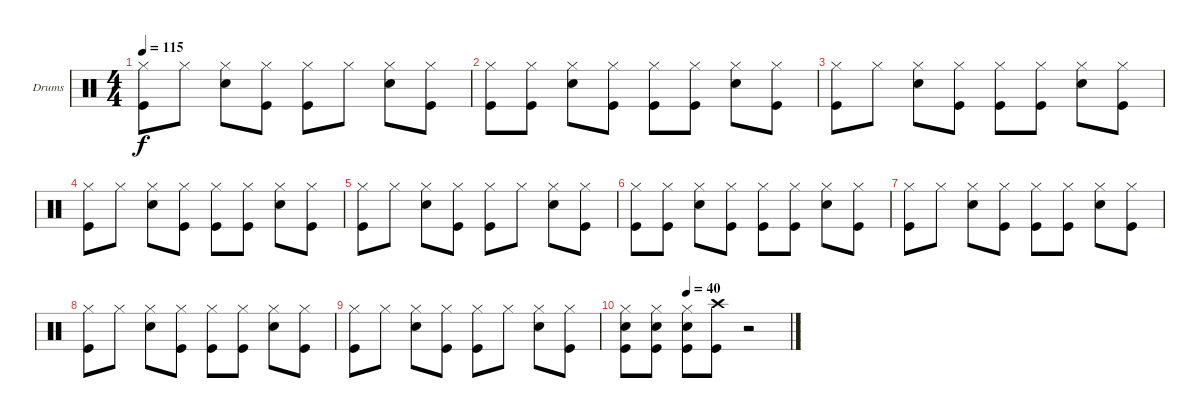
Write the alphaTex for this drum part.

\bracketExtendMode groupsimilarinstruments
\firstSystemTrackNameOrientation horizontal
\otherSystemsTrackNameOrientation horizontal
\track ("Drumkit" "Drums") {instrument percussion}
\staff {score}
\articulation defaults
\ts (4 4)
\tempo 115
\clef neutral
\ks c
("Hi-Hat (closed)" "Kick (hit)").8{dy f} "Hi-Hat (closed)".8 ("Hi-Hat (closed)" "Snare (hit) 2").8 ("Hi-Hat (closed)" "Kick (hit)").8 ("Hi-Hat (closed)" "Kick (hit)").8 "Hi-Hat (closed)".8 ("Hi-Hat (closed)" "Snare (hit) 2").8 ("Hi-Hat (closed)" "Kick (hit)").8 |
("Hi-Hat (closed)" "Kick (hit)").8 ("Hi-Hat (closed)" "Kick (hit)").8 ("Hi-Hat (closed)" "Snare (hit) 2").8 ("Hi-Hat (closed)" "Kick (hit)").8 ("Hi-Hat (closed)" "Kick (hit)").8 ("Hi-Hat (closed)" "Kick (hit)").8 ("Hi-Hat (closed)" "Snare (hit) 2").8 ("Hi-Hat (closed)" "Kick (hit)").8 |
("Hi-Hat (closed)" "Kick (hit)").8 "Hi-Hat (closed)".8 ("Hi-Hat (closed)" "Snare (hit) 2").8 ("Hi-Hat (closed)" "Kick (hit)").8 ("Hi-Hat (closed)" "Kick (hit)").8 ("Hi-Hat (closed)" "Kick (hit)").8 ("Hi-Hat (closed)" "Snare (hit) 2").8 ("Hi-Hat (closed)" "Kick (hit)").8 |
("Hi-Hat (closed)" "Kick (hit)").8 "Hi-Hat (closed)".8 ("Hi-Hat (closed)" "Snare (hit) 2").8 ("Hi-Hat (closed)" "Kick (hit)").8 ("Hi-Hat (closed)" "Kick (hit)").8 ("Hi-Hat (closed)" "Kick (hit)").8 ("Hi-Hat (closed)" "Snare (hit) 2").8 ("Hi-Hat (closed)" "Kick (hit)").8 |
("Hi-Hat (closed)" "Kick (hit)").8 "Hi-Hat (closed)".8 ("Hi-Hat (closed)" "Snare (hit) 2").8 ("Hi-Hat (closed)" "Kick (hit)").8 ("Hi-Hat (closed)" "Kick (hit)").8 "Hi-Hat (closed)".8 ("Hi-Hat (closed)" "Snare (hit) 2").8 ("Hi-Hat (closed)" "Kick (hit)").8 |
("Hi-Hat (closed)" "Kick (hit)").8 ("Hi-Hat (closed)" "Kick (hit)").8 ("Hi-Hat (closed)" "Snare (hit) 2").8 ("Hi-Hat (closed)" "Kick (hit)").8 ("Hi-Hat (closed)" "Kick (hit)").8 ("Hi-Hat (closed)" "Kick (hit)").8 ("Hi-Hat (closed)" "Snare (hit) 2").8 ("Hi-Hat (closed)" "Kick (hit)").8 |
("Hi-Hat (closed)" "Kick (hit)").8 "Hi-Hat (closed)".8 ("Hi-Hat (closed)" "Snare (hit) 2").8 ("Hi-Hat (closed)" "Kick (hit)").8 ("Hi-Hat (closed)" "Kick (hit)").8 ("Hi-Hat (closed)" "Kick (hit)").8 ("Hi-Hat (closed)" "Snare (hit) 2").8 ("Hi-Hat (closed)" "Kick (hit)").8 |
("Hi-Hat (closed)" "Kick (hit)").8 "Hi-Hat (closed)".8 ("Hi-Hat (closed)" "Snare (hit) 2").8 ("Hi-Hat (closed)" "Kick (hit)").8 ("Hi-Hat (closed)" "Kick (hit)").8 ("Hi-Hat (closed)" "Kick (hit)").8 ("Hi-Hat (closed)" "Snare (hit) 2").8 ("Hi-Hat (closed)" "Kick (hit)").8 |
("Hi-Hat (closed)" "Kick (hit)").8 "Hi-Hat (closed)".8 ("Hi-Hat (closed)" "Snare (hit) 2").8 ("Hi-Hat (closed)" "Kick (hit)").8 ("Hi-Hat (closed)" "Kick (hit)").8 "Hi-Hat (closed)".8 ("Hi-Hat (closed)" "Snare (hit) 2").8 ("Hi-Hat (closed)" "Kick (hit)").8 |
\tempo (40 0.375)
("Hi-Hat (closed)" "Snare (hit) 2" "Kick (hit)").8 ("Hi-Hat (closed)" "Snare (hit) 2" "Kick (hit)").8 ("Hi-Hat (closed)" "Snare (hit) 2" "Kick (hit)").8 ("Crash high (hit)" "Kick (hit)").8 r.2
